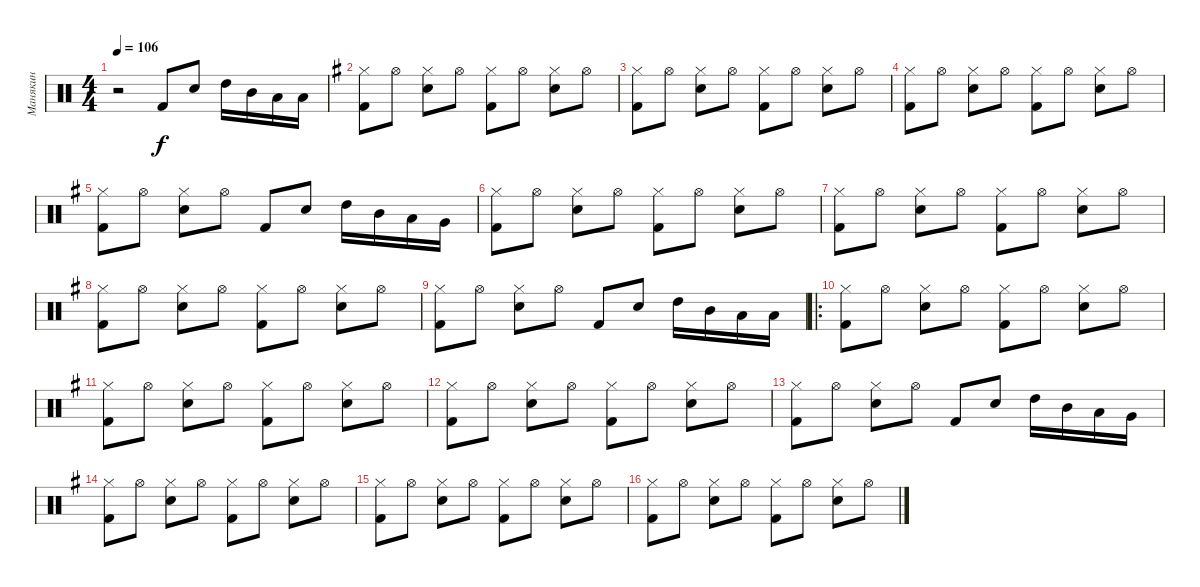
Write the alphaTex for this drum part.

\track ("Манякин" "Манякин") {instrument percussion}
\staff {score}
\articulation defaults
\ts (4 4)
\tempo 106
\clef neutral
\ks c
r.2{dy f} "Kick (hit) 2".8 "Electric Snare (hit)".8 "High Tom (hit)".16 "Mid Tom (hit)".16 "Low Tom (hit)".16 "Low Tom (hit)".16 |
\ks g
("Hi-Hat (closed)" "Kick (hit) 2").8 "Hi-Hat (open)".8 ("Hi-Hat (closed)" "Electric Snare (hit)").8 "Hi-Hat (open)".8 ("Hi-Hat (closed)" "Kick (hit) 2").8 "Hi-Hat (open)".8 ("Hi-Hat (closed)" "Electric Snare (hit)").8 "Hi-Hat (open)".8 |
("Hi-Hat (closed)" "Kick (hit) 2").8 "Hi-Hat (open)".8 ("Hi-Hat (closed)" "Electric Snare (hit)").8 "Hi-Hat (open)".8 ("Hi-Hat (closed)" "Kick (hit) 2").8 "Hi-Hat (open)".8 ("Hi-Hat (closed)" "Electric Snare (hit)").8 "Hi-Hat (open)".8 |
("Hi-Hat (closed)" "Kick (hit) 2").8 "Hi-Hat (open)".8 ("Hi-Hat (closed)" "Electric Snare (hit)").8 "Hi-Hat (open)".8 ("Hi-Hat (closed)" "Kick (hit) 2").8 "Hi-Hat (open)".8 ("Hi-Hat (closed)" "Electric Snare (hit)").8 "Hi-Hat (open)".8 |
("Hi-Hat (closed)" "Kick (hit) 2").8 "Hi-Hat (open)".8 ("Hi-Hat (closed)" "Electric Snare (hit)").8 "Hi-Hat (open)".8 "Kick (hit) 2".8 "Electric Snare (hit)".8 "High Tom (hit)".16 "Mid Tom (hit)".16 "Low Tom (hit)".16 "Very Low Tom (hit)".16 |
("Hi-Hat (closed)" "Kick (hit) 2").8 "Hi-Hat (open)".8 ("Hi-Hat (closed)" "Electric Snare (hit)").8 "Hi-Hat (open)".8 ("Hi-Hat (closed)" "Kick (hit) 2").8 "Hi-Hat (open)".8 ("Hi-Hat (closed)" "Electric Snare (hit)").8 "Hi-Hat (open)".8 |
("Hi-Hat (closed)" "Kick (hit) 2").8 "Hi-Hat (open)".8 ("Hi-Hat (closed)" "Electric Snare (hit)").8 "Hi-Hat (open)".8 ("Hi-Hat (closed)" "Kick (hit) 2").8 "Hi-Hat (open)".8 ("Hi-Hat (closed)" "Electric Snare (hit)").8 "Hi-Hat (open)".8 |
("Hi-Hat (closed)" "Kick (hit) 2").8 "Hi-Hat (open)".8 ("Hi-Hat (closed)" "Electric Snare (hit)").8 "Hi-Hat (open)".8 ("Hi-Hat (closed)" "Kick (hit) 2").8 "Hi-Hat (open)".8 ("Hi-Hat (closed)" "Electric Snare (hit)").8 "Hi-Hat (open)".8 |
("Hi-Hat (closed)" "Kick (hit) 2").8 "Hi-Hat (open)".8 ("Hi-Hat (closed)" "Electric Snare (hit)").8 "Hi-Hat (open)".8 "Kick (hit) 2".8 "Electric Snare (hit)".8 "High Tom (hit)".16 "Mid Tom (hit)".16 "Low Tom (hit)".16 "Low Tom (hit)".16 |
\ro
("Hi-Hat (closed)" "Kick (hit) 2").8 "Hi-Hat (open)".8 ("Hi-Hat (closed)" "Electric Snare (hit)").8 "Hi-Hat (open)".8 ("Hi-Hat (closed)" "Kick (hit) 2").8 "Hi-Hat (open)".8 ("Hi-Hat (closed)" "Electric Snare (hit)").8 "Hi-Hat (open)".8 |
("Hi-Hat (closed)" "Kick (hit) 2").8 "Hi-Hat (open)".8 ("Hi-Hat (closed)" "Electric Snare (hit)").8 "Hi-Hat (open)".8 ("Hi-Hat (closed)" "Kick (hit) 2").8 "Hi-Hat (open)".8 ("Hi-Hat (closed)" "Electric Snare (hit)").8 "Hi-Hat (open)".8 |
("Hi-Hat (closed)" "Kick (hit) 2").8 "Hi-Hat (open)".8 ("Hi-Hat (closed)" "Electric Snare (hit)").8 "Hi-Hat (open)".8 ("Hi-Hat (closed)" "Kick (hit) 2").8 "Hi-Hat (open)".8 ("Hi-Hat (closed)" "Electric Snare (hit)").8 "Hi-Hat (open)".8 |
("Hi-Hat (closed)" "Kick (hit) 2").8 "Hi-Hat (open)".8 ("Hi-Hat (closed)" "Electric Snare (hit)").8 "Hi-Hat (open)".8 "Kick (hit) 2".8 "Electric Snare (hit)".8 "High Tom (hit)".16 "Mid Tom (hit)".16 "Low Tom (hit)".16 "Very Low Tom (hit)".16 |
("Hi-Hat (closed)" "Kick (hit) 2").8 "Hi-Hat (open)".8 ("Hi-Hat (closed)" "Electric Snare (hit)").8 "Hi-Hat (open)".8 ("Hi-Hat (closed)" "Kick (hit) 2").8 "Hi-Hat (open)".8 ("Hi-Hat (closed)" "Electric Snare (hit)").8 "Hi-Hat (open)".8 |
("Hi-Hat (closed)" "Kick (hit) 2").8 "Hi-Hat (open)".8 ("Hi-Hat (closed)" "Electric Snare (hit)").8 "Hi-Hat (open)".8 ("Hi-Hat (closed)" "Kick (hit) 2").8 "Hi-Hat (open)".8 ("Hi-Hat (closed)" "Electric Snare (hit)").8 "Hi-Hat (open)".8 |
("Hi-Hat (closed)" "Kick (hit) 2").8 "Hi-Hat (open)".8 ("Hi-Hat (closed)" "Electric Snare (hit)").8 "Hi-Hat (open)".8 ("Hi-Hat (closed)" "Kick (hit) 2").8 "Hi-Hat (open)".8 ("Hi-Hat (closed)" "Electric Snare (hit)").8 "Hi-Hat (open)".8
